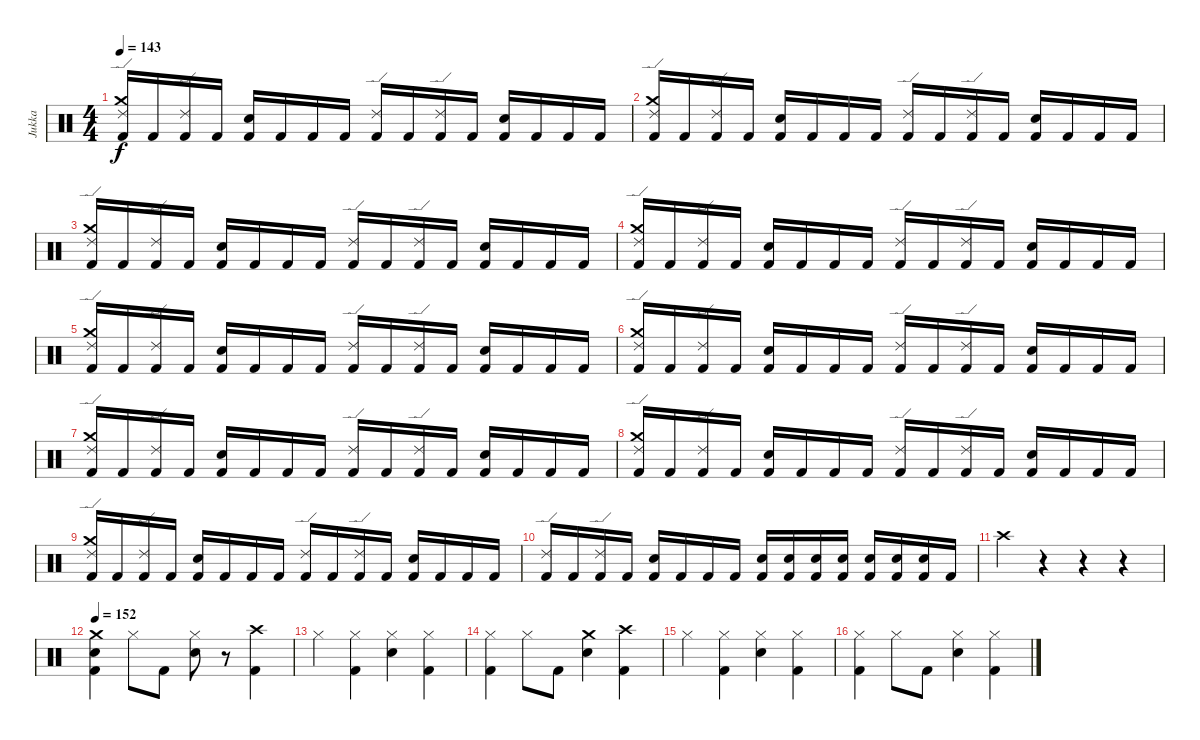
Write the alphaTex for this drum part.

\track ("Jukka" "Jukka") {instrument percussion}
\staff {score}
\articulation defaults
\ts (4 4)
\tempo 143
\clef neutral
\ks c
("Ride (edge) 2" "Crash medium (hit)" "Kick (hit) 2").16{dy f} "Kick (hit) 2".16 ("Ride (edge) 2" "Kick (hit) 2").16 "Kick (hit) 2".16 ("Electric Snare (hit)" "Kick (hit) 2").16 "Kick (hit) 2".16 "Kick (hit) 2".16 "Kick (hit) 2".16 ("Ride (edge) 2" "Kick (hit) 2").16 "Kick (hit) 2".16 ("Ride (edge) 2" "Kick (hit) 2").16 "Kick (hit) 2".16 ("Electric Snare (hit)" "Kick (hit) 2").16 "Kick (hit) 2".16 "Kick (hit) 2".16 "Kick (hit) 2".16 |
("Ride (edge) 2" "Crash medium (hit)" "Kick (hit) 2").16 "Kick (hit) 2".16 ("Ride (edge) 2" "Kick (hit) 2").16 "Kick (hit) 2".16 ("Electric Snare (hit)" "Kick (hit) 2").16 "Kick (hit) 2".16 "Kick (hit) 2".16 "Kick (hit) 2".16 ("Ride (edge) 2" "Kick (hit) 2").16 "Kick (hit) 2".16 ("Ride (edge) 2" "Kick (hit) 2").16 "Kick (hit) 2".16 ("Electric Snare (hit)" "Kick (hit) 2").16 "Kick (hit) 2".16 "Kick (hit) 2".16 "Kick (hit) 2".16 |
("Ride (edge) 2" "Crash medium (hit)" "Kick (hit) 2").16 "Kick (hit) 2".16 ("Ride (edge) 2" "Kick (hit) 2").16 "Kick (hit) 2".16 ("Electric Snare (hit)" "Kick (hit) 2").16 "Kick (hit) 2".16 "Kick (hit) 2".16 "Kick (hit) 2".16 ("Ride (edge) 2" "Kick (hit) 2").16 "Kick (hit) 2".16 ("Ride (edge) 2" "Kick (hit) 2").16 "Kick (hit) 2".16 ("Electric Snare (hit)" "Kick (hit) 2").16 "Kick (hit) 2".16 "Kick (hit) 2".16 "Kick (hit) 2".16 |
("Ride (edge) 2" "Crash medium (hit)" "Kick (hit) 2").16 "Kick (hit) 2".16 ("Ride (edge) 2" "Kick (hit) 2").16 "Kick (hit) 2".16 ("Electric Snare (hit)" "Kick (hit) 2").16 "Kick (hit) 2".16 "Kick (hit) 2".16 "Kick (hit) 2".16 ("Ride (edge) 2" "Kick (hit) 2").16 "Kick (hit) 2".16 ("Ride (edge) 2" "Kick (hit) 2").16 "Kick (hit) 2".16 ("Electric Snare (hit)" "Kick (hit) 2").16 "Kick (hit) 2".16 "Kick (hit) 2".16 "Kick (hit) 2".16 |
("Ride (edge) 2" "Crash medium (hit)" "Kick (hit) 2").16 "Kick (hit) 2".16 ("Ride (edge) 2" "Kick (hit) 2").16 "Kick (hit) 2".16 ("Electric Snare (hit)" "Kick (hit) 2").16 "Kick (hit) 2".16 "Kick (hit) 2".16 "Kick (hit) 2".16 ("Ride (edge) 2" "Kick (hit) 2").16 "Kick (hit) 2".16 ("Ride (edge) 2" "Kick (hit) 2").16 "Kick (hit) 2".16 ("Electric Snare (hit)" "Kick (hit) 2").16 "Kick (hit) 2".16 "Kick (hit) 2".16 "Kick (hit) 2".16 |
("Ride (edge) 2" "Crash medium (hit)" "Kick (hit) 2").16 "Kick (hit) 2".16 ("Ride (edge) 2" "Kick (hit) 2").16 "Kick (hit) 2".16 ("Electric Snare (hit)" "Kick (hit) 2").16 "Kick (hit) 2".16 "Kick (hit) 2".16 "Kick (hit) 2".16 ("Ride (edge) 2" "Kick (hit) 2").16 "Kick (hit) 2".16 ("Ride (edge) 2" "Kick (hit) 2").16 "Kick (hit) 2".16 ("Electric Snare (hit)" "Kick (hit) 2").16 "Kick (hit) 2".16 "Kick (hit) 2".16 "Kick (hit) 2".16 |
("Ride (edge) 2" "Crash medium (hit)" "Kick (hit) 2").16 "Kick (hit) 2".16 ("Ride (edge) 2" "Kick (hit) 2").16 "Kick (hit) 2".16 ("Electric Snare (hit)" "Kick (hit) 2").16 "Kick (hit) 2".16 "Kick (hit) 2".16 "Kick (hit) 2".16 ("Ride (edge) 2" "Kick (hit) 2").16 "Kick (hit) 2".16 ("Ride (edge) 2" "Kick (hit) 2").16 "Kick (hit) 2".16 ("Electric Snare (hit)" "Kick (hit) 2").16 "Kick (hit) 2".16 "Kick (hit) 2".16 "Kick (hit) 2".16 |
("Ride (edge) 2" "Crash medium (hit)" "Kick (hit) 2").16 "Kick (hit) 2".16 ("Ride (edge) 2" "Kick (hit) 2").16 "Kick (hit) 2".16 ("Electric Snare (hit)" "Kick (hit) 2").16 "Kick (hit) 2".16 "Kick (hit) 2".16 "Kick (hit) 2".16 ("Ride (edge) 2" "Kick (hit) 2").16 "Kick (hit) 2".16 ("Ride (edge) 2" "Kick (hit) 2").16 "Kick (hit) 2".16 ("Electric Snare (hit)" "Kick (hit) 2").16 "Kick (hit) 2".16 "Kick (hit) 2".16 "Kick (hit) 2".16 |
("Ride (edge) 2" "Crash medium (hit)" "Kick (hit) 2").16 "Kick (hit) 2".16 ("Ride (edge) 2" "Kick (hit) 2").16 "Kick (hit) 2".16 ("Electric Snare (hit)" "Kick (hit) 2").16 "Kick (hit) 2".16 "Kick (hit) 2".16 "Kick (hit) 2".16 ("Ride (edge) 2" "Kick (hit) 2").16 "Kick (hit) 2".16 ("Ride (edge) 2" "Kick (hit) 2").16 "Kick (hit) 2".16 ("Electric Snare (hit)" "Kick (hit) 2").16 "Kick (hit) 2".16 "Kick (hit) 2".16 "Kick (hit) 2".16 |
("Ride (edge) 2" "Kick (hit) 2").16 "Kick (hit) 2".16 ("Ride (edge) 2" "Kick (hit) 2").16 "Kick (hit) 2".16 ("Electric Snare (hit)" "Kick (hit) 2").16 "Kick (hit) 2".16 "Kick (hit) 2".16 "Kick (hit) 2".16 ("Electric Snare (hit)" "Kick (hit) 2").16 ("Electric Snare (hit)" "Kick (hit) 2").16 ("Electric Snare (hit)" "Kick (hit) 2").16 ("Electric Snare (hit)" "Kick (hit) 2").16 ("Electric Snare (hit)" "Kick (hit) 2").16 ("Electric Snare (hit)" "Kick (hit) 2").16 ("Electric Snare (hit)" "Kick (hit) 2").16 "Kick (hit) 2".16 |
"Crash high (hit)".4 r.4 r.4 r.4 |
\tempo 152
("Crash medium (hit)" "Electric Snare (hit)" "Kick (hit) 2").4 "Hi-Hat (closed)".8 "Kick (hit) 2".8 ("Hi-Hat (closed)" "Electric Snare (hit)").8 r.8 ("Crash high (hit)" "Kick (hit) 2").4 |
"Hi-Hat (closed)".4 ("Hi-Hat (closed)" "Kick (hit) 2").4 ("Hi-Hat (closed)" "Electric Snare (hit)").4 ("Hi-Hat (closed)" "Kick (hit) 2").4 |
("Hi-Hat (closed)" "Kick (hit) 2").4 "Hi-Hat (closed)".8 "Kick (hit) 2".8 ("Crash medium (hit)" "Electric Snare (hit)").4 ("Crash high (hit)" "Kick (hit) 2").4 |
"Hi-Hat (closed)".4 ("Hi-Hat (closed)" "Kick (hit) 2").4 ("Hi-Hat (closed)" "Electric Snare (hit)").4 ("Hi-Hat (closed)" "Kick (hit) 2").4 |
("Hi-Hat (closed)" "Kick (hit) 2").4 "Hi-Hat (closed)".8 "Kick (hit) 2".8 ("Hi-Hat (closed)" "Electric Snare (hit)").4 ("Hi-Hat (closed)" "Kick (hit) 2").4
